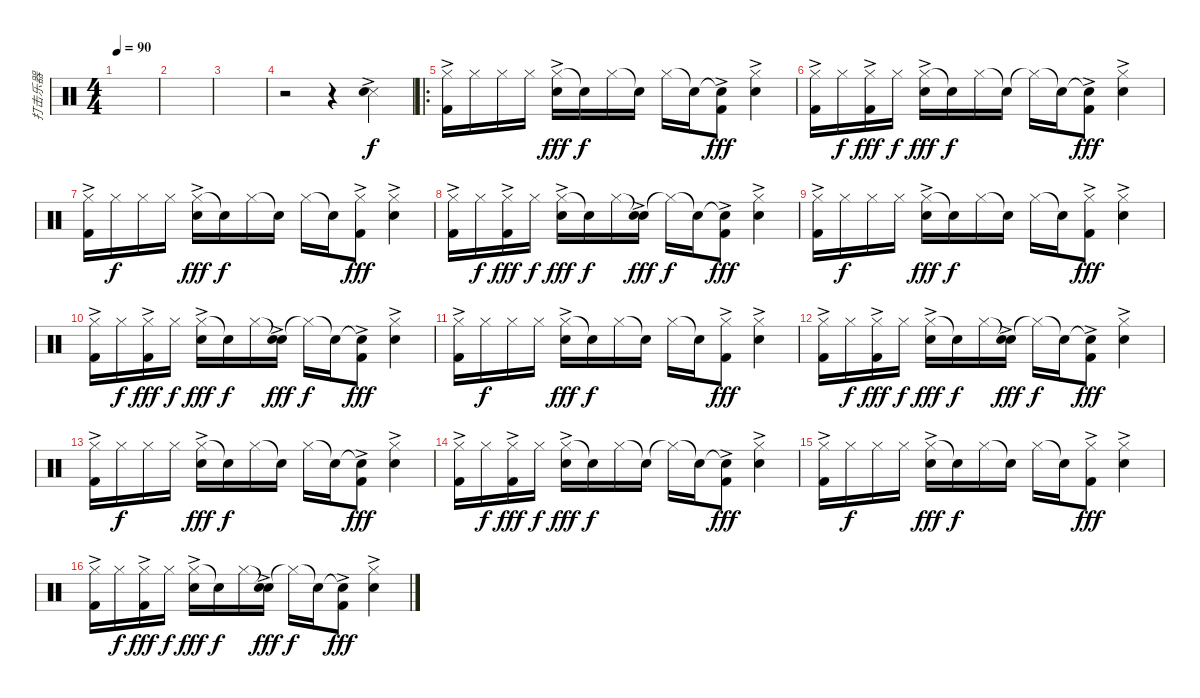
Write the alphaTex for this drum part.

\track ("打击乐器" "打击乐器") {instrument percussion}
\staff {score}
\articulation defaults
\ts (4 4)
\tempo 90
\clef neutral
\ks c
|
|
|
r.2 r.4 ("Snare (side stick) 3"{ac} "Electric Snare (hit)"{ac}).4 |
\ro
("Hi-Hat (closed)" "Kick (hit) 2"{ac}).16 "Hi-Hat (closed)".16{dy f} "Hi-Hat (closed)".16 "Hi-Hat (closed)".16 ("Hi-Hat (closed)" "Electric Snare (hit)"{ac}).16{dy fff} "Snare (hit)"{t}.16{dy f} "Hi-Hat (closed)".16 "Snare (hit)"{t}.16 "Hi-Hat (closed)".16 "Snare (hit)"{t}.16 ("Snare (hit)"{t} "Kick (hit) 2"{ac}).8{dy fff} ("Hi-Hat (closed)" "Electric Snare (hit)"{ac}).4 |
("Hi-Hat (closed)" "Kick (hit) 2"{ac}).16 "Hi-Hat (closed)".16{dy f} ("Hi-Hat (closed)" "Kick (hit) 2"{ac}).16{dy fff} "Hi-Hat (closed)".16{dy f} ("Hi-Hat (closed)" "Electric Snare (hit)"{ac}).16{dy fff} "Snare (hit)"{t}.16{dy f} "Hi-Hat (closed)".16 "Snare (hit)"{t}.16 "Hi-Hat (closed)"{t}.16 "Snare (hit)"{t}.16 ("Snare (hit)"{t} "Kick (hit) 2"{ac}).8{dy fff} ("Hi-Hat (closed)" "Electric Snare (hit)"{ac}).4 |
("Hi-Hat (closed)" "Kick (hit) 2"{ac}).16 "Hi-Hat (closed)".16{dy f} "Hi-Hat (closed)".16 "Hi-Hat (closed)".16 ("Hi-Hat (closed)" "Electric Snare (hit)"{ac}).16{dy fff} "Snare (hit)"{t}.16{dy f} "Hi-Hat (closed)".16 "Snare (hit)"{t}.16 "Hi-Hat (closed)".16 "Snare (hit)"{t}.16 ("Hi-Hat (closed)" "Kick (hit) 2"{ac}).8{dy fff} ("Hi-Hat (closed)" "Electric Snare (hit)"{ac}).4 |
("Hi-Hat (closed)" "Kick (hit) 2"{ac}).16 "Hi-Hat (closed)".16{dy f} ("Hi-Hat (closed)" "Kick (hit) 2"{ac}).16{dy fff} "Hi-Hat (closed)".16{dy f} ("Hi-Hat (closed)" "Electric Snare (hit)"{ac}).16{dy fff} "Snare (hit)"{t}.16{dy f} "Hi-Hat (closed)".16 ("Snare (hit)"{t} "Electric Snare (hit)"{ac}).16{dy fff} "Hi-Hat (closed)"{t}.16{dy f} "Snare (hit)"{t}.16 ("Snare (hit)"{t} "Kick (hit) 2"{ac}).8{dy fff} ("Hi-Hat (closed)" "Electric Snare (hit)"{ac}).4 |
("Hi-Hat (closed)" "Kick (hit) 2"{ac}).16 "Hi-Hat (closed)".16{dy f} "Hi-Hat (closed)".16 "Hi-Hat (closed)".16 ("Hi-Hat (closed)" "Electric Snare (hit)"{ac}).16{dy fff} "Snare (hit)"{t}.16{dy f} "Hi-Hat (closed)".16 "Snare (hit)"{t}.16 "Hi-Hat (closed)".16 "Snare (hit)"{t}.16 ("Hi-Hat (closed)" "Kick (hit) 2"{ac}).8{dy fff} ("Hi-Hat (closed)" "Electric Snare (hit)"{ac}).4 |
("Hi-Hat (closed)" "Kick (hit) 2"{ac}).16 "Hi-Hat (closed)".16{dy f} ("Hi-Hat (closed)" "Kick (hit) 2"{ac}).16{dy fff} "Hi-Hat (closed)".16{dy f} ("Hi-Hat (closed)" "Electric Snare (hit)"{ac}).16{dy fff} "Snare (hit)"{t}.16{dy f} "Hi-Hat (closed)".16 ("Snare (hit)"{t} "Electric Snare (hit)"{ac}).16{dy fff} "Hi-Hat (closed)"{t}.16{dy f} "Snare (hit)"{t}.16 ("Snare (hit)"{t} "Kick (hit) 2"{ac}).8{dy fff} ("Hi-Hat (closed)" "Electric Snare (hit)"{ac}).4 |
("Hi-Hat (closed)" "Kick (hit) 2"{ac}).16 "Hi-Hat (closed)".16{dy f} "Hi-Hat (closed)".16 "Hi-Hat (closed)".16 ("Hi-Hat (closed)" "Electric Snare (hit)"{ac}).16{dy fff} "Snare (hit)"{t}.16{dy f} "Hi-Hat (closed)".16 "Snare (hit)"{t}.16 "Hi-Hat (closed)".16 "Snare (hit)"{t}.16 ("Hi-Hat (closed)" "Kick (hit) 2"{ac}).8{dy fff} ("Hi-Hat (closed)" "Electric Snare (hit)"{ac}).4 |
("Hi-Hat (closed)" "Kick (hit) 2"{ac}).16 "Hi-Hat (closed)".16{dy f} ("Hi-Hat (closed)" "Kick (hit) 2"{ac}).16{dy fff} "Hi-Hat (closed)".16{dy f} ("Hi-Hat (closed)" "Electric Snare (hit)"{ac}).16{dy fff} "Snare (hit)"{t}.16{dy f} "Hi-Hat (closed)".16 ("Snare (hit)"{t} "Electric Snare (hit)"{ac}).16{dy fff} "Hi-Hat (closed)"{t}.16{dy f} "Snare (hit)"{t}.16 ("Snare (hit)"{t} "Kick (hit) 2"{ac}).8{dy fff} ("Hi-Hat (closed)" "Electric Snare (hit)"{ac}).4 |
("Hi-Hat (closed)" "Kick (hit) 2"{ac}).16 "Hi-Hat (closed)".16{dy f} "Hi-Hat (closed)".16 "Hi-Hat (closed)".16 ("Hi-Hat (closed)" "Electric Snare (hit)"{ac}).16{dy fff} "Snare (hit)"{t}.16{dy f} "Hi-Hat (closed)".16 "Snare (hit)"{t}.16 "Hi-Hat (closed)".16 "Snare (hit)"{t}.16 ("Snare (hit)"{t} "Kick (hit) 2"{ac}).8{dy fff} ("Hi-Hat (closed)" "Electric Snare (hit)"{ac}).4 |
("Hi-Hat (closed)" "Kick (hit) 2"{ac}).16 "Hi-Hat (closed)".16{dy f} ("Hi-Hat (closed)" "Kick (hit) 2"{ac}).16{dy fff} "Hi-Hat (closed)".16{dy f} ("Hi-Hat (closed)" "Electric Snare (hit)"{ac}).16{dy fff} "Snare (hit)"{t}.16{dy f} "Hi-Hat (closed)".16 "Snare (hit)"{t}.16 "Hi-Hat (closed)"{t}.16 "Snare (hit)"{t}.16 ("Snare (hit)"{t} "Kick (hit) 2"{ac}).8{dy fff} ("Hi-Hat (closed)" "Electric Snare (hit)"{ac}).4 |
("Hi-Hat (closed)" "Kick (hit) 2"{ac}).16 "Hi-Hat (closed)".16{dy f} "Hi-Hat (closed)".16 "Hi-Hat (closed)".16 ("Hi-Hat (closed)" "Electric Snare (hit)"{ac}).16{dy fff} "Snare (hit)"{t}.16{dy f} "Hi-Hat (closed)".16 "Snare (hit)"{t}.16 "Hi-Hat (closed)".16 "Snare (hit)"{t}.16 ("Hi-Hat (closed)" "Kick (hit) 2"{ac}).8{dy fff} ("Hi-Hat (closed)" "Electric Snare (hit)"{ac}).4 |
("Hi-Hat (closed)" "Kick (hit) 2"{ac}).16 "Hi-Hat (closed)".16{dy f} ("Hi-Hat (closed)" "Kick (hit) 2"{ac}).16{dy fff} "Hi-Hat (closed)".16{dy f} ("Hi-Hat (closed)" "Electric Snare (hit)"{ac}).16{dy fff} "Snare (hit)"{t}.16{dy f} "Hi-Hat (closed)".16 ("Snare (hit)"{t} "Electric Snare (hit)"{ac}).16{dy fff} "Hi-Hat (closed)"{t}.16{dy f} "Snare (hit)"{t}.16 ("Snare (hit)"{t} "Kick (hit) 2"{ac}).8{dy fff} ("Hi-Hat (closed)" "Electric Snare (hit)"{ac}).4
